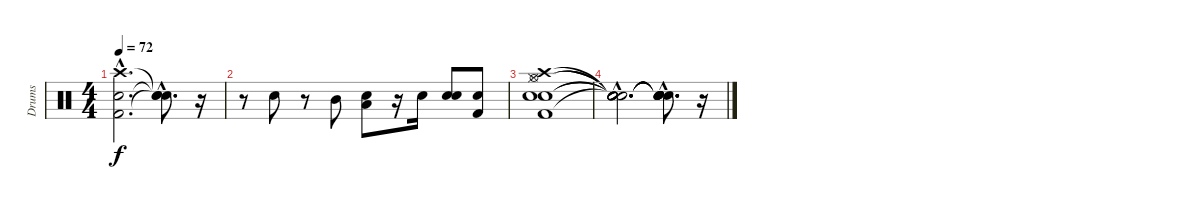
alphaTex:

\track ("Drums" "Drums") {instrument percussion}
\staff {score}
\articulation defaults
\ts (4 4)
\tempo 72
\clef neutral
\ks c
("Snare (hit)"{hac} "Kick (hit) 2"{hac} "Crash high (hit)"{hac}).2{d dy f} ("Snare (hit)"{hac t} "Snare (hit)"{hac t} "Snare (hit)"{hac t}).8{d} r.16 |
r.8 "Snare (hit) 2".8 r.8 "Mid Tom (hit)".8 ("Snare (hit)" "Low Tom (hit)").8 r.16 "Snare (hit) 2".16 ("Snare (hit)" "Snare (hit) 2").8 ("Snare (hit)" "Kick (hit) 2").8 |
("Snare (hit)" "Kick (hit) 2" "Snare (hit) 2" "Hi-Hat (closed)" "Hi-Hat (open)" "Crash high (hit)").1 |
("Snare (hit)"{hac t} "Snare (hit)"{hac t} "Snare (hit)"{hac t} "Snare (hit)"{hac t} "Snare (hit)"{hac t} "Snare (hit)"{hac t}).2{d} ("Snare (hit)"{hac t} "Snare (hit)"{hac t} "Snare (hit)"{hac t} "Snare (hit)"{hac t} "Snare (hit)"{hac t} "Snare (hit)"{hac t}).8{d} r.16
